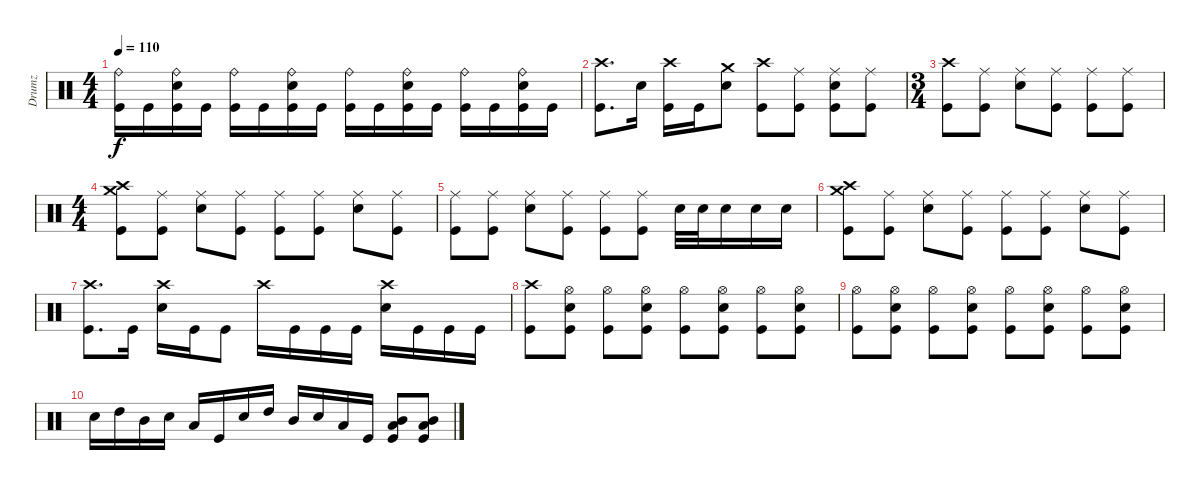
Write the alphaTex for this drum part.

\track ("Drumz" "Drumz") {instrument percussion}
\staff {score}
\articulation defaults
\ts (4 4)
\tempo 110
\clef neutral
\ks c
("Kick (hit)" "Ride (bell)").16{dy f} "Kick (hit)".16 ("Kick (hit)" "Ride (bell)" "Snare (hit) 2").16 "Kick (hit)".16 ("Kick (hit)" "Ride (bell)").16 "Kick (hit)".16 ("Kick (hit)" "Ride (bell)" "Snare (hit) 2").16 "Kick (hit)".16 ("Kick (hit)" "Ride (bell)").16 "Kick (hit)".16 ("Kick (hit)" "Ride (bell)" "Snare (hit) 2").16 "Kick (hit)".16 ("Kick (hit)" "Ride (bell)").16 "Kick (hit)".16 ("Kick (hit)" "Ride (bell)" "Snare (hit) 2").16 "Kick (hit)".16 |
("Crash high (hit)" "Kick (hit)").8{d} "Snare (hit) 2".16 ("Kick (hit)" "Crash high (hit)").16 "Kick (hit)".16 ("Snare (hit) 2" "Crash medium (hit)").8 ("Kick (hit)" "Crash high (hit)").8 ("Ride (middle)" "Kick (hit)").8 ("Ride (middle)" "Kick (hit)" "Snare (hit) 2").8 ("Ride (middle)" "Kick (hit)").8 |
\ts (3 4)
("Kick (hit)" "Crash high (hit)").8 ("Kick (hit)" "Ride (middle)").8 ("Snare (hit) 2" "Ride (middle)").8 ("Kick (hit)" "Ride (middle)").8 ("Kick (hit)" "Ride (middle)").8 ("Kick (hit)" "Ride (middle)").8 |
\ts (4 4)
("Crash high (hit)" "Crash medium (hit)" "Kick (hit)").8 ("Kick (hit)" "Ride (middle)").8 ("Snare (hit) 2" "Ride (middle)").8 ("Kick (hit)" "Ride (middle)").8 ("Kick (hit)" "Ride (middle)").8 ("Kick (hit)" "Ride (middle)").8 ("Snare (hit) 2" "Ride (middle)").8 ("Kick (hit)" "Ride (middle)").8 |
("Kick (hit)" "Ride (middle)").8 ("Kick (hit)" "Ride (middle)").8 ("Snare (hit) 2" "Ride (middle)").8 ("Kick (hit)" "Ride (middle)").8 ("Kick (hit)" "Ride (middle)").8 ("Kick (hit)" "Ride (middle)").8 "Snare (hit) 2".32 "Snare (hit) 2".32 "Snare (hit) 2".16 "Snare (hit) 2".16 "Snare (hit) 2".16 |
("Crash high (hit)" "Crash medium (hit)" "Kick (hit)").8 ("Kick (hit)" "Ride (middle)").8 ("Snare (hit) 2" "Ride (middle)").8 ("Kick (hit)" "Ride (middle)").8 ("Kick (hit)" "Ride (middle)").8 ("Kick (hit)" "Ride (middle)").8 ("Snare (hit) 2" "Ride (middle)").8 ("Kick (hit)" "Ride (middle)").8 |
("Kick (hit)" "Crash high (hit)").8{d} "Kick (hit)".16 ("Snare (hit) 2" "Crash high (hit)").16 "Kick (hit)".16 "Kick (hit)".8 "Crash high (hit)".16 "Kick (hit)".16 "Kick (hit)".16 "Kick (hit)".16 ("Snare (hit) 2" "Crash high (hit)").16 "Kick (hit)".16 "Kick (hit)".16 "Kick (hit)".16 |
("Kick (hit)" "Crash high (hit)").8 ("Snare (hit) 2" "Hi-Hat (open)" "Kick (hit)").8 ("Kick (hit)" "Hi-Hat (open)").8 ("Kick (hit)" "Snare (hit) 2" "Hi-Hat (open)").8 ("Kick (hit)" "Hi-Hat (open)").8 ("Snare (hit) 2" "Kick (hit)" "Hi-Hat (open)").8 ("Kick (hit)" "Hi-Hat (open)").8 ("Kick (hit)" "Snare (hit) 2" "Hi-Hat (open)").8 |
("Kick (hit)" "Hi-Hat (open)").8 ("Snare (hit) 2" "Kick (hit)" "Hi-Hat (open)").8 ("Kick (hit)" "Hi-Hat (open)").8 ("Kick (hit)" "Snare (hit) 2" "Hi-Hat (open)").8 ("Kick (hit)" "Hi-Hat (open)").8 ("Snare (hit) 2" "Kick (hit)" "Hi-Hat (open)").8 ("Kick (hit)" "Hi-Hat (open)").8 ("Kick (hit)" "Snare (hit) 2" "Hi-Hat (open)").8 |
"Snare (hit) 2".16 "High Tom (hit)".16 "Mid Tom (hit)".16 "Snare (hit) 2".16 "Low Tom (hit)".16 "Kick (hit)".16 "Snare (hit) 2".16 "High Tom (hit)".16 "Mid Tom (hit)".16 "Snare (hit) 2".16 "Low Tom (hit)".16 "Kick (hit)".16 ("Kick (hit)" "Low Tom (hit)" "Mid Tom (hit)").8 ("Kick (hit)" "Low Tom (hit)" "Mid Tom (hit)").8
